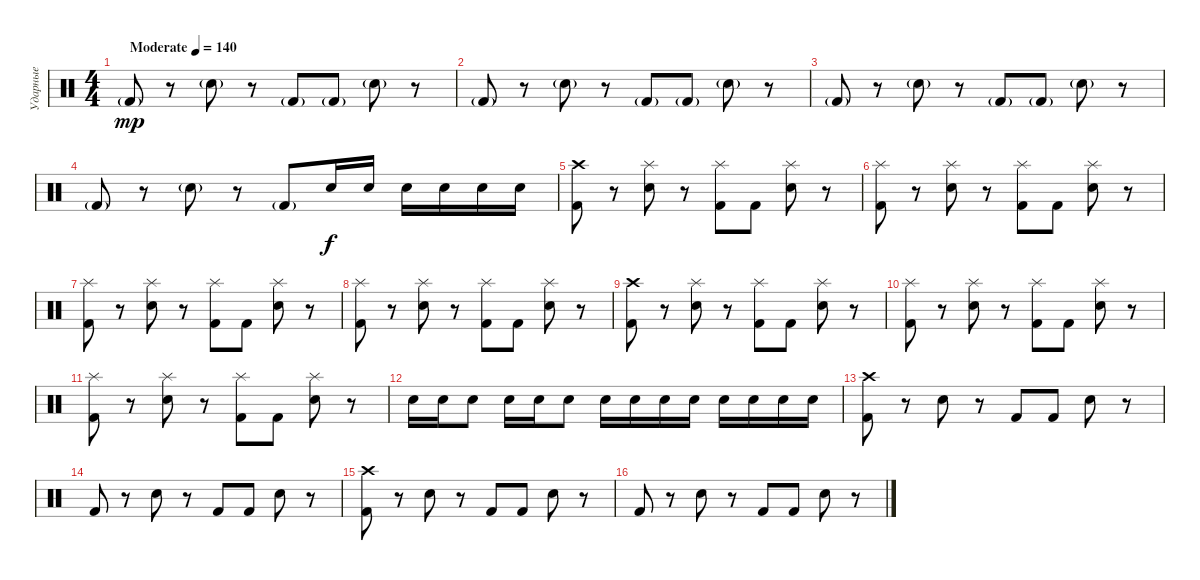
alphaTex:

\track ("Ударные" "Ударные") {instrument percussion}
\staff {score}
\articulation defaults
\ts (4 4)
\tempo (140 "Moderate")
\clef neutral
\ks c "Kick (hit) 2"{g}.8{dy mp}
r.8 "Electric Snare (hit)"{g}.8 r.8 "Kick (hit) 2"{g}.8 "Kick (hit) 2"{g}.8 "Electric Snare (hit)"{g}.8 r.8 |
"Kick (hit) 2"{g}.8 r.8 "Electric Snare (hit)"{g}.8 r.8 "Kick (hit) 2"{g}.8 "Kick (hit) 2"{g}.8 "Electric Snare (hit)"{g}.8 r.8 |
"Kick (hit) 2"{g}.8 r.8 "Electric Snare (hit)"{g}.8 r.8 "Kick (hit) 2"{g}.8 "Kick (hit) 2"{g}.8 "Electric Snare (hit)"{g}.8 r.8 |
"Kick (hit) 2"{g}.8 r.8 "Electric Snare (hit)"{g}.8 r.8 "Kick (hit) 2"{g}.8 "Electric Snare (hit)".16{dy f} "Electric Snare (hit)".16 "Electric Snare (hit)".16 "Electric Snare (hit)".16 "Electric Snare (hit)".16 "Electric Snare (hit)".16 |
("Crash high (hit)" "Kick (hit) 2").8 r.8 ("Splash (hit)" "Electric Snare (hit)").8 r.8 ("Splash (hit)" "Kick (hit) 2").8 "Kick (hit) 2".8 ("Splash (hit)" "Electric Snare (hit)").8 r.8 |
("Splash (hit)" "Kick (hit) 2").8 r.8 ("Splash (hit)" "Electric Snare (hit)").8 r.8 ("Splash (hit)" "Kick (hit) 2").8 "Kick (hit) 2".8 ("Splash (hit)" "Electric Snare (hit)").8 r.8 |
("Splash (hit)" "Kick (hit) 2").8 r.8 ("Splash (hit)" "Electric Snare (hit)").8 r.8 ("Splash (hit)" "Kick (hit) 2").8 "Kick (hit) 2".8 ("Splash (hit)" "Electric Snare (hit)").8 r.8 |
("Splash (hit)" "Kick (hit) 2").8 r.8 ("Splash (hit)" "Electric Snare (hit)").8 r.8 ("Splash (hit)" "Kick (hit) 2").8 "Kick (hit) 2".8 ("Splash (hit)" "Electric Snare (hit)").8 r.8 |
("Crash high (hit)" "Kick (hit) 2").8 r.8 ("Splash (hit)" "Electric Snare (hit)").8 r.8 ("Splash (hit)" "Kick (hit) 2").8 "Kick (hit) 2".8 ("Splash (hit)" "Electric Snare (hit)").8 r.8 |
("Splash (hit)" "Kick (hit) 2").8 r.8 ("Splash (hit)" "Electric Snare (hit)").8 r.8 ("Splash (hit)" "Kick (hit) 2").8 "Kick (hit) 2".8 ("Splash (hit)" "Electric Snare (hit)").8 r.8 |
("Splash (hit)" "Kick (hit) 2").8 r.8 ("Splash (hit)" "Electric Snare (hit)").8 r.8 ("Splash (hit)" "Kick (hit) 2").8 "Kick (hit) 2".8 ("Splash (hit)" "Electric Snare (hit)").8 r.8 |
"Electric Snare (hit)".16 "Electric Snare (hit)".16 "Electric Snare (hit)".8 "Electric Snare (hit)".16 "Electric Snare (hit)".16 "Electric Snare (hit)".8 "Electric Snare (hit)".16 "Electric Snare (hit)".16 "Electric Snare (hit)".16 "Electric Snare (hit)".16 "Electric Snare (hit)".16 "Electric Snare (hit)".16 "Electric Snare (hit)".16 "Electric Snare (hit)".16 |
("Crash high (hit)" "Kick (hit) 2").8 r.8 "Electric Snare (hit)".8 r.8 "Kick (hit) 2".8 "Kick (hit) 2".8 "Electric Snare (hit)".8 r.8 |
"Kick (hit) 2".8 r.8 "Electric Snare (hit)".8 r.8 "Kick (hit) 2".8 "Kick (hit) 2".8 "Electric Snare (hit)".8 r.8 |
("Crash high (hit)" "Kick (hit) 2").8 r.8 "Electric Snare (hit)".8 r.8 "Kick (hit) 2".8 "Kick (hit) 2".8 "Electric Snare (hit)".8 r.8 |
"Kick (hit) 2".8 r.8 "Electric Snare (hit)".8 r.8 "Kick (hit) 2".8 "Kick (hit) 2".8 "Electric Snare (hit)".8 r.8
